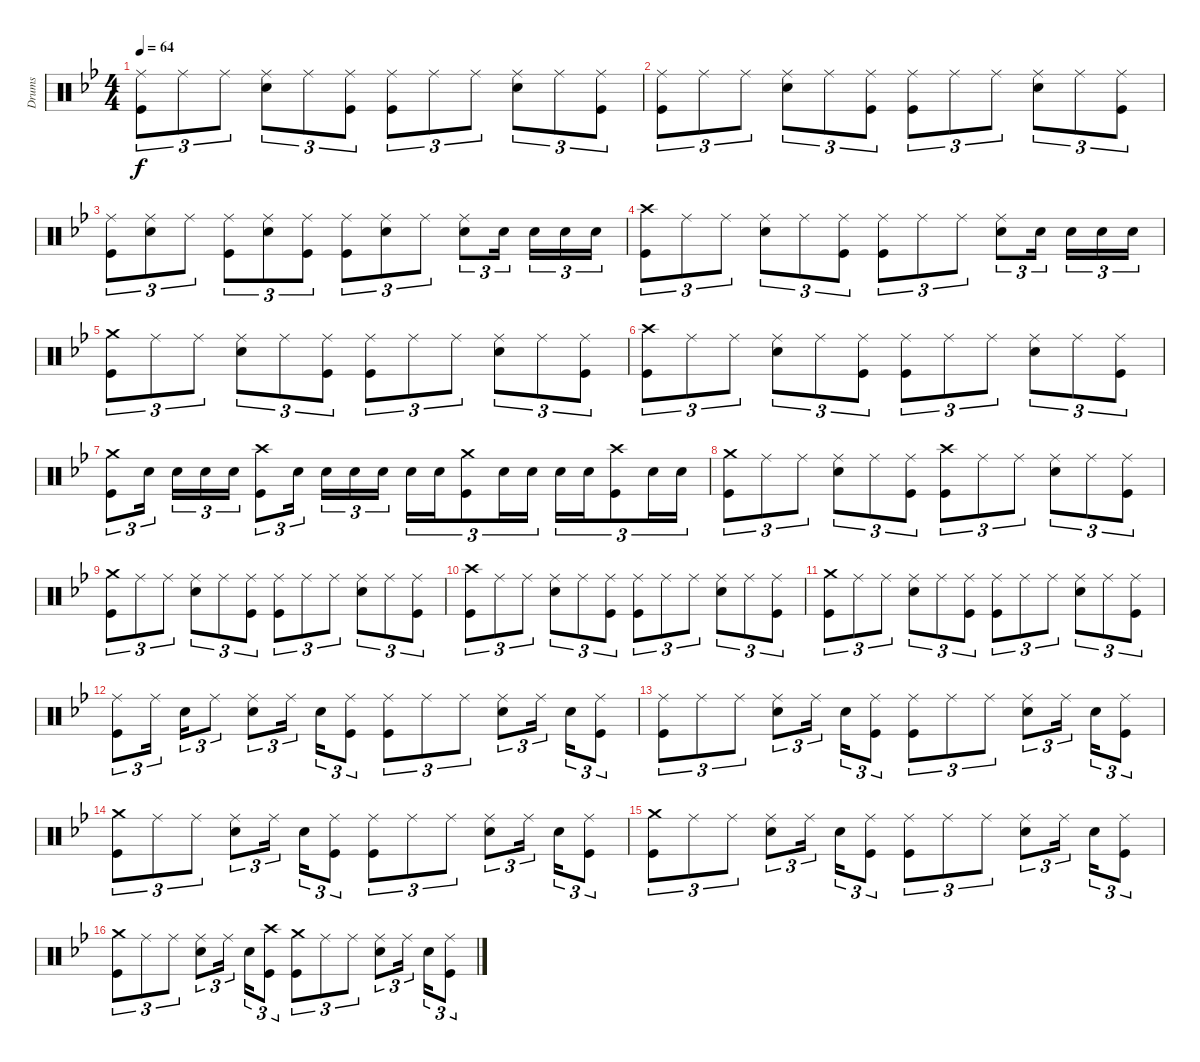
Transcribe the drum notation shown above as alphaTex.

\track ("Drums" "Drums") {instrument percussion}
\staff {score}
\articulation defaults
\ts (4 4)
\tempo 64
\clef neutral
\ks bb
("Ride (middle)" "Kick (hit)").8{tu (3 2) dy f} "Ride (middle)".8{tu (3 2)} "Ride (middle)".8{tu (3 2)} ("Ride (middle)" "Snare (hit) 2").8{tu (3 2)} "Ride (middle)".8{tu (3 2)} ("Ride (middle)" "Kick (hit)").8{tu (3 2)} ("Ride (middle)" "Kick (hit)").8{tu (3 2)} "Ride (middle)".8{tu (3 2)} "Ride (middle)".8{tu (3 2)} ("Ride (middle)" "Snare (hit) 2").8{tu (3 2)} "Ride (middle)".8{tu (3 2)} ("Ride (middle)" "Kick (hit)").8{tu (3 2)} |
("Ride (middle)" "Kick (hit)").8{tu (3 2)} "Ride (middle)".8{tu (3 2)} "Ride (middle)".8{tu (3 2)} ("Ride (middle)" "Snare (hit) 2").8{tu (3 2)} "Ride (middle)".8{tu (3 2)} ("Ride (middle)" "Kick (hit)").8{tu (3 2)} ("Ride (middle)" "Kick (hit)").8{tu (3 2)} "Ride (middle)".8{tu (3 2)} "Ride (middle)".8{tu (3 2)} ("Ride (middle)" "Snare (hit) 2").8{tu (3 2)} "Ride (middle)".8{tu (3 2)} ("Ride (middle)" "Kick (hit)").8{tu (3 2)} |
("Ride (middle)" "Kick (hit)").8{tu (3 2)} ("Ride (middle)" "Snare (hit) 2").8{tu (3 2)} "Ride (middle)".8{tu (3 2)} ("Ride (middle)" "Kick (hit)").8{tu (3 2)} ("Ride (middle)" "Snare (hit) 2").8{tu (3 2)} ("Ride (middle)" "Kick (hit)").8{tu (3 2)} ("Ride (middle)" "Kick (hit)").8{tu (3 2)} ("Ride (middle)" "Snare (hit) 2").8{tu (3 2)} "Ride (middle)".8{tu (3 2)} ("Ride (middle)" "Snare (hit) 2").8{tu (3 2)} "Snare (hit) 2".16{tu (3 2) beam splitsecondary} "Snare (hit) 2".16{tu (3 2)} "Snare (hit) 2".16{tu (3 2)} "Snare (hit) 2".16{tu (3 2)} |
("Crash high (hit)" "Kick (hit)").8{tu (3 2)} "Ride (middle)".8{tu (3 2)} "Ride (middle)".8{tu (3 2)} ("Ride (middle)" "Snare (hit) 2").8{tu (3 2)} "Ride (middle)".8{tu (3 2)} ("Ride (middle)" "Kick (hit)").8{tu (3 2)} ("Ride (middle)" "Kick (hit)").8{tu (3 2)} "Ride (middle)".8{tu (3 2)} "Ride (middle)".8{tu (3 2)} ("Ride (middle)" "Snare (hit) 2").8{tu (3 2)} "Snare (hit) 2".16{tu (3 2) beam splitsecondary} "Snare (hit) 2".16{tu (3 2)} "Snare (hit) 2".16{tu (3 2)} "Snare (hit) 2".16{tu (3 2)} |
("Crash medium (hit)" "Kick (hit)").8{tu (3 2)} "Ride (middle)".8{tu (3 2)} "Ride (middle)".8{tu (3 2)} ("Ride (middle)" "Snare (hit) 2").8{tu (3 2)} "Ride (middle)".8{tu (3 2)} ("Ride (middle)" "Kick (hit)").8{tu (3 2)} ("Ride (middle)" "Kick (hit)").8{tu (3 2)} "Ride (middle)".8{tu (3 2)} "Ride (middle)".8{tu (3 2)} ("Ride (middle)" "Snare (hit) 2").8{tu (3 2)} "Ride (middle)".8{tu (3 2)} ("Ride (middle)" "Kick (hit)").8{tu (3 2)} |
("Crash high (hit)" "Kick (hit)").8{tu (3 2)} "Ride (middle)".8{tu (3 2)} "Ride (middle)".8{tu (3 2)} ("Ride (middle)" "Snare (hit) 2").8{tu (3 2)} "Ride (middle)".8{tu (3 2)} ("Ride (middle)" "Kick (hit)").8{tu (3 2)} ("Ride (middle)" "Kick (hit)").8{tu (3 2)} "Ride (middle)".8{tu (3 2)} "Ride (middle)".8{tu (3 2)} ("Ride (middle)" "Snare (hit) 2").8{tu (3 2)} "Ride (middle)".8{tu (3 2)} ("Ride (middle)" "Kick (hit)").8{tu (3 2)} |
("Crash medium (hit)" "Kick (hit)").8{tu (3 2)} "Snare (hit) 2".16{tu (3 2) beam splitsecondary} "Snare (hit) 2".16{tu (3 2)} "Snare (hit) 2".16{tu (3 2)} "Snare (hit) 2".16{tu (3 2)} ("Crash high (hit)" "Kick (hit)").8{tu (3 2)} "Snare (hit) 2".16{tu (3 2) beam splitsecondary} "Snare (hit) 2".16{tu (3 2)} "Snare (hit) 2".16{tu (3 2)} "Snare (hit) 2".16{tu (3 2)} "Snare (hit) 2".16{tu (3 2)} "Snare (hit) 2".16{tu (3 2)} ("Crash medium (hit)" "Kick (hit)").8{tu (3 2)} "Snare (hit) 2".16{tu (3 2)} "Snare (hit) 2".16{tu (3 2)} "Snare (hit) 2".16{tu (3 2)} "Snare (hit) 2".16{tu (3 2)} ("Crash high (hit)" "Kick (hit)").8{tu (3 2)} "Snare (hit) 2".16{tu (3 2)} "Snare (hit) 2".16{tu (3 2)} |
("Crash medium (hit)" "Kick (hit)").8{tu (3 2)} "Ride (middle)".8{tu (3 2)} "Ride (middle)".8{tu (3 2)} ("Ride (middle)" "Snare (hit) 2").8{tu (3 2)} "Ride (middle)".8{tu (3 2)} ("Ride (middle)" "Kick (hit)").8{tu (3 2)} ("Crash high (hit)" "Kick (hit)").8{tu (3 2)} "Ride (middle)".8{tu (3 2)} "Ride (middle)".8{tu (3 2)} ("Ride (middle)" "Snare (hit) 2").8{tu (3 2)} "Ride (middle)".8{tu (3 2)} ("Ride (middle)" "Kick (hit)").8{tu (3 2)} |
("Crash medium (hit)" "Kick (hit)").8{tu (3 2)} "Ride (middle)".8{tu (3 2)} "Ride (middle)".8{tu (3 2)} ("Ride (middle)" "Snare (hit) 2").8{tu (3 2)} "Ride (middle)".8{tu (3 2)} ("Ride (middle)" "Kick (hit)").8{tu (3 2)} ("Ride (middle)" "Kick (hit)").8{tu (3 2)} "Ride (middle)".8{tu (3 2)} "Ride (middle)".8{tu (3 2)} ("Ride (middle)" "Snare (hit) 2").8{tu (3 2)} "Ride (middle)".8{tu (3 2)} ("Ride (middle)" "Kick (hit)").8{tu (3 2)} |
("Crash high (hit)" "Kick (hit)").8{tu (3 2)} "Ride (middle)".8{tu (3 2)} "Ride (middle)".8{tu (3 2)} ("Ride (middle)" "Snare (hit) 2").8{tu (3 2)} "Ride (middle)".8{tu (3 2)} ("Ride (middle)" "Kick (hit)").8{tu (3 2)} ("Ride (middle)" "Kick (hit)").8{tu (3 2)} "Ride (middle)".8{tu (3 2)} "Ride (middle)".8{tu (3 2)} ("Ride (middle)" "Snare (hit) 2").8{tu (3 2)} "Ride (middle)".8{tu (3 2)} ("Ride (middle)" "Kick (hit)").8{tu (3 2)} |
("Crash medium (hit)" "Kick (hit)").8{tu (3 2)} "Ride (middle)".8{tu (3 2)} "Ride (middle)".8{tu (3 2)} ("Ride (middle)" "Snare (hit) 2").8{tu (3 2)} "Ride (middle)".8{tu (3 2)} ("Ride (middle)" "Kick (hit)").8{tu (3 2)} ("Ride (middle)" "Kick (hit)").8{tu (3 2)} "Ride (middle)".8{tu (3 2)} "Ride (middle)".8{tu (3 2)} ("Ride (middle)" "Snare (hit) 2").8{tu (3 2)} "Ride (middle)".8{tu (3 2)} ("Ride (middle)" "Kick (hit)").8{tu (3 2)} |
("Ride (middle)" "Kick (hit)").8{tu (3 2)} "Ride (middle)".16{tu (3 2) beam splitsecondary} "Snare (hit) 2".16{tu (3 2)} "Ride (middle)".8{tu (3 2)} ("Ride (middle)" "Snare (hit) 2").8{tu (3 2)} "Ride (middle)".16{tu (3 2) beam splitsecondary} "Snare (hit) 2".16{tu (3 2)} ("Ride (middle)" "Kick (hit)").8{tu (3 2)} ("Ride (middle)" "Kick (hit)").8{tu (3 2)} "Ride (middle)".8{tu (3 2)} "Ride (middle)".8{tu (3 2)} ("Ride (middle)" "Snare (hit) 2").8{tu (3 2)} "Ride (middle)".16{tu (3 2) beam splitsecondary} "Snare (hit) 2".16{tu (3 2)} ("Ride (middle)" "Kick (hit)").8{tu (3 2)} |
("Ride (middle)" "Kick (hit)").8{tu (3 2)} "Ride (middle)".8{tu (3 2)} "Ride (middle)".8{tu (3 2)} ("Ride (middle)" "Snare (hit) 2").8{tu (3 2)} "Ride (middle)".16{tu (3 2) beam splitsecondary} "Snare (hit) 2".16{tu (3 2)} ("Ride (middle)" "Kick (hit)").8{tu (3 2)} ("Ride (middle)" "Kick (hit)").8{tu (3 2)} "Ride (middle)".8{tu (3 2)} "Ride (middle)".8{tu (3 2)} ("Ride (middle)" "Snare (hit) 2").8{tu (3 2)} "Ride (middle)".16{tu (3 2) beam splitsecondary} "Snare (hit) 2".16{tu (3 2)} ("Ride (middle)" "Kick (hit)").8{tu (3 2)} |
("Crash medium (hit)" "Kick (hit)").8{tu (3 2)} "Ride (middle)".8{tu (3 2)} "Ride (middle)".8{tu (3 2)} ("Ride (middle)" "Snare (hit) 2").8{tu (3 2)} "Ride (middle)".16{tu (3 2) beam splitsecondary} "Snare (hit) 2".16{tu (3 2)} ("Ride (middle)" "Kick (hit)").8{tu (3 2)} ("Ride (middle)" "Kick (hit)").8{tu (3 2)} "Ride (middle)".8{tu (3 2)} "Ride (middle)".8{tu (3 2)} ("Ride (middle)" "Snare (hit) 2").8{tu (3 2)} "Ride (middle)".16{tu (3 2) beam splitsecondary} "Snare (hit) 2".16{tu (3 2)} ("Ride (middle)" "Kick (hit)").8{tu (3 2)} |
("Crash medium (hit)" "Kick (hit)").8{tu (3 2)} "Ride (middle)".8{tu (3 2)} "Ride (middle)".8{tu (3 2)} ("Ride (middle)" "Snare (hit) 2").8{tu (3 2)} "Ride (middle)".16{tu (3 2) beam splitsecondary} "Snare (hit) 2".16{tu (3 2)} ("Ride (middle)" "Kick (hit)").8{tu (3 2)} ("Ride (middle)" "Kick (hit)").8{tu (3 2)} "Ride (middle)".8{tu (3 2)} "Ride (middle)".8{tu (3 2)} ("Ride (middle)" "Snare (hit) 2").8{tu (3 2)} "Ride (middle)".16{tu (3 2) beam splitsecondary} "Snare (hit) 2".16{tu (3 2)} ("Ride (middle)" "Kick (hit)").8{tu (3 2)} |
("Crash medium (hit)" "Kick (hit)").8{tu (3 2)} "Ride (middle)".8{tu (3 2)} "Ride (middle)".8{tu (3 2)} ("Ride (middle)" "Snare (hit) 2").8{tu (3 2)} "Ride (middle)".16{tu (3 2) beam splitsecondary} "Snare (hit) 2".16{tu (3 2)} ("Crash high (hit)" "Kick (hit)").8{tu (3 2)} ("Crash medium (hit)" "Kick (hit)").8{tu (3 2)} "Ride (middle)".8{tu (3 2)} "Ride (middle)".8{tu (3 2)} ("Ride (middle)" "Snare (hit) 2").8{tu (3 2)} "Ride (middle)".16{tu (3 2) beam splitsecondary} "Snare (hit) 2".16{tu (3 2)} ("Ride (middle)" "Kick (hit)").8{tu (3 2)}
